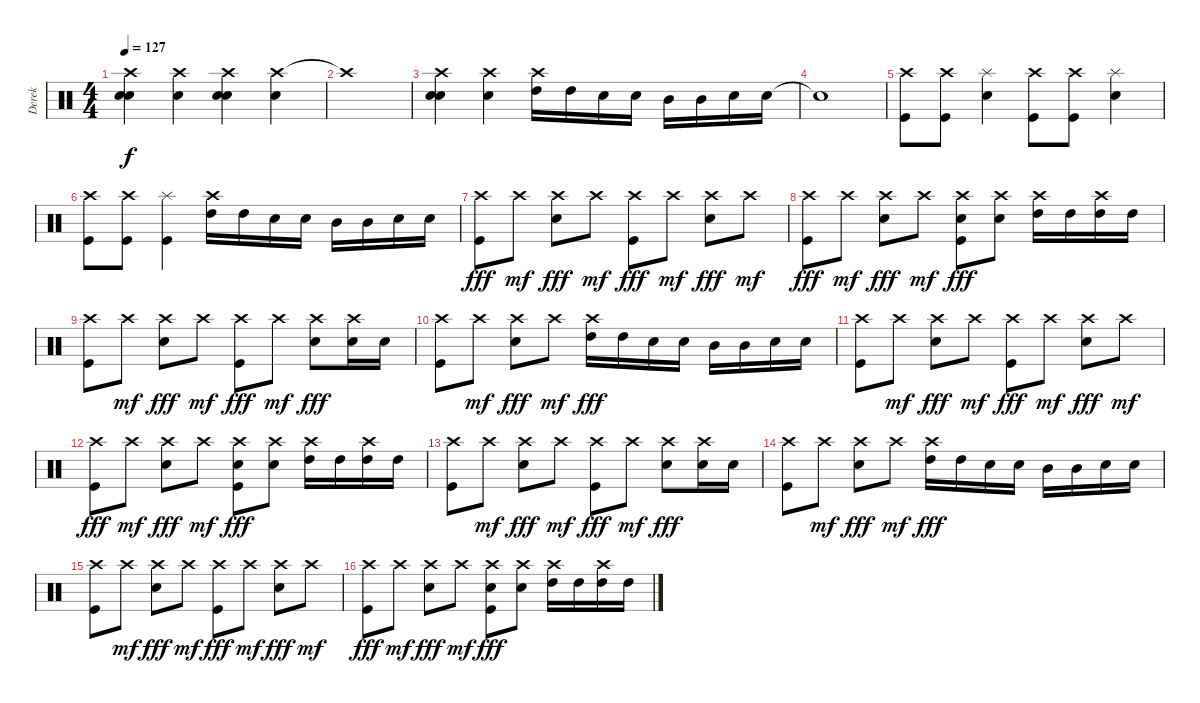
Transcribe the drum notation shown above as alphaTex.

\track ("Derek" "Derek") {instrument percussion}
\staff {score}
\articulation defaults
\ts (4 4)
\tempo 127
\clef neutral
\ks c
("Crash high (hit)" "Snare (hit) 2" "Snare (hit) 2").4{dy f} ("Crash high (hit)" "Snare (hit) 2").4 ("Crash high (hit)" "Snare (hit) 2" "Snare (hit) 2").4 ("Crash high (hit)" "Snare (hit) 2").4 |
"Crash high (hit)"{t}.1 |
("Crash high (hit)" "Snare (hit) 2" "Snare (hit) 2").4 ("Crash high (hit)" "Snare (hit) 2").4 ("Crash high (hit)" "High Tom (hit)").16 "High Tom (hit)".16 "Snare (hit) 2".16 "Snare (hit) 2".16 "Mid Tom (hit)".16 "Mid Tom (hit)".16 "Snare (hit) 2".16 "Snare (hit) 2".16 |
"Snare (hit)"{t}.1 |
("Crash high (hit)" "Kick (hit)").8 ("Crash high (hit)" "Kick (hit)").8 ("Splash (hit)" "Snare (hit) 2").4 ("Crash high (hit)" "Kick (hit)").8 ("Crash high (hit)" "Kick (hit)").8 ("Splash (hit)" "Snare (hit) 2").4 |
("Crash high (hit)" "Kick (hit)").8 ("Crash high (hit)" "Kick (hit)").8 ("Splash (hit)" "Kick (hit)").4 ("Crash high (hit)" "High Tom (hit)").16 "High Tom (hit)".16 "Snare (hit) 2".16 "Snare (hit) 2".16 "Mid Tom (hit)".16 "Mid Tom (hit)".16 "Snare (hit) 2".16 "Snare (hit) 2".16 |
("Crash high (hit)" "Kick (hit)").8{dy fff} "Crash high (hit)".8{dy mf} ("Crash high (hit)" "Snare (hit) 2").8{dy fff} "Crash high (hit)".8{dy mf} ("Crash high (hit)" "Kick (hit)").8{dy fff} "Crash high (hit)".8{dy mf} ("Crash high (hit)" "Snare (hit) 2").8{dy fff} "Crash high (hit)".8{dy mf} |
("Crash high (hit)" "Kick (hit)").8{dy fff} "Crash high (hit)".8{dy mf} ("Crash high (hit)" "Snare (hit) 2").8{dy fff} "Crash high (hit)".8{dy mf} ("Crash high (hit)" "Snare (hit) 2" "Kick (hit)").8{dy fff} ("Crash high (hit)" "Snare (hit) 2").8 ("Crash high (hit)" "High Tom (hit)").16 "High Tom (hit)".16 ("Crash high (hit)" "High Tom (hit)").16 "High Tom (hit)".16 |
("Crash high (hit)" "Kick (hit)").8 "Crash high (hit)".8{dy mf} ("Crash high (hit)" "Snare (hit) 2").8{dy fff} "Crash high (hit)".8{dy mf} ("Crash high (hit)" "Kick (hit)").8{dy fff} "Crash high (hit)".8{dy mf} ("Crash high (hit)" "Snare (hit) 2").8{dy fff} ("Crash high (hit)" "Snare (hit) 2").16 "Snare (hit) 2".16 |
("Crash high (hit)" "Kick (hit)").8 "Crash high (hit)".8{dy mf} ("Crash high (hit)" "Snare (hit) 2").8{dy fff} "Crash high (hit)".8{dy mf} ("Crash high (hit)" "High Tom (hit)").16{dy fff} "High Tom (hit)".16 "Snare (hit) 2".16 "Snare (hit) 2".16 "Mid Tom (hit)".16 "Mid Tom (hit)".16 "Snare (hit) 2".16 "Snare (hit) 2".16 |
("Crash high (hit)" "Kick (hit)").8 "Crash high (hit)".8{dy mf} ("Crash high (hit)" "Snare (hit) 2").8{dy fff} "Crash high (hit)".8{dy mf} ("Crash high (hit)" "Kick (hit)").8{dy fff} "Crash high (hit)".8{dy mf} ("Crash high (hit)" "Snare (hit) 2").8{dy fff} "Crash high (hit)".8{dy mf} |
("Crash high (hit)" "Kick (hit)").8{dy fff} "Crash high (hit)".8{dy mf} ("Crash high (hit)" "Snare (hit) 2").8{dy fff} "Crash high (hit)".8{dy mf} ("Crash high (hit)" "Snare (hit) 2" "Kick (hit)").8{dy fff} ("Crash high (hit)" "Snare (hit) 2").8 ("Crash high (hit)" "High Tom (hit)").16 "High Tom (hit)".16 ("Crash high (hit)" "High Tom (hit)").16 "High Tom (hit)".16 |
("Crash high (hit)" "Kick (hit)").8 "Crash high (hit)".8{dy mf} ("Crash high (hit)" "Snare (hit) 2").8{dy fff} "Crash high (hit)".8{dy mf} ("Crash high (hit)" "Kick (hit)").8{dy fff} "Crash high (hit)".8{dy mf} ("Crash high (hit)" "Snare (hit) 2").8{dy fff} ("Crash high (hit)" "Snare (hit) 2").16 "Snare (hit) 2".16 |
("Crash high (hit)" "Kick (hit)").8 "Crash high (hit)".8{dy mf} ("Crash high (hit)" "Snare (hit) 2").8{dy fff} "Crash high (hit)".8{dy mf} ("Crash high (hit)" "High Tom (hit)").16{dy fff} "High Tom (hit)".16 "Snare (hit) 2".16 "Snare (hit) 2".16 "Mid Tom (hit)".16 "Mid Tom (hit)".16 "Snare (hit) 2".16 "Snare (hit) 2".16 |
("Crash high (hit)" "Kick (hit)").8 "Crash high (hit)".8{dy mf} ("Crash high (hit)" "Snare (hit) 2").8{dy fff} "Crash high (hit)".8{dy mf} ("Crash high (hit)" "Kick (hit)").8{dy fff} "Crash high (hit)".8{dy mf} ("Crash high (hit)" "Snare (hit) 2").8{dy fff} "Crash high (hit)".8{dy mf} |
("Crash high (hit)" "Kick (hit)").8{dy fff} "Crash high (hit)".8{dy mf} ("Crash high (hit)" "Snare (hit) 2").8{dy fff} "Crash high (hit)".8{dy mf} ("Crash high (hit)" "Snare (hit) 2" "Kick (hit)").8{dy fff} ("Crash high (hit)" "Snare (hit) 2").8 ("Crash high (hit)" "High Tom (hit)").16 "High Tom (hit)".16 ("Crash high (hit)" "High Tom (hit)").16 "High Tom (hit)".16
